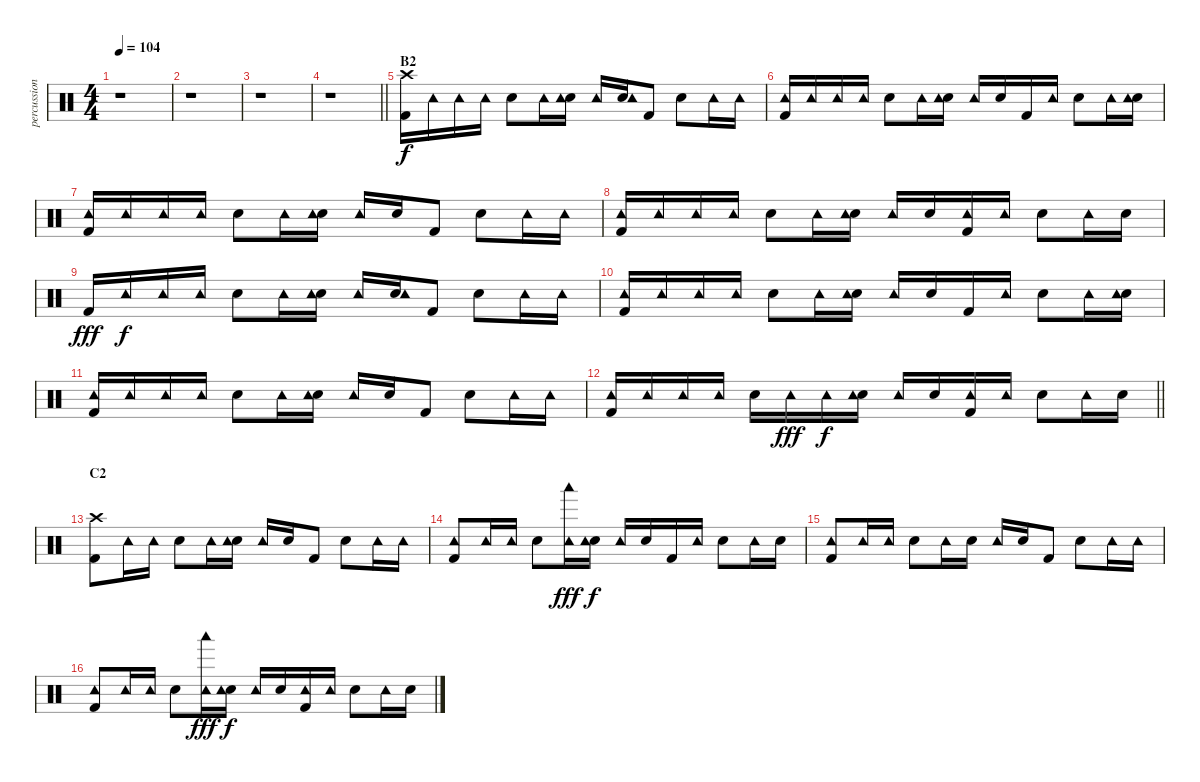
\track ("percussion" "percussion") {instrument percussion}
\staff {score}
\articulation defaults
\ts (4 4)
\tempo 104
\clef neutral
\ks c
r.1{dy f} |
r.1 |
r.1 |
\barLineRight lightlight
r.1 |
\section ("" "B2")
("Crash high (hit)" "Kick (hit) 2").16 "Tambourine (hit)".16 "Tambourine (hit)".16 "Tambourine (hit)".16 "Snare (hit) 2".8 "Tambourine (hit)".16 ("Snare (hit) 2" "Tambourine (hit)").16 "Tambourine (hit)".16 ("Snare (hit) 2" "Tambourine (hit)").16 "Kick (hit) 2".8 "Snare (hit) 2".8 "Tambourine (hit)".16 "Tambourine (hit)".16 |
("Tambourine (hit)" "Kick (hit) 2").16 "Tambourine (hit)".16 "Tambourine (hit)".16 "Tambourine (hit)".16 "Snare (hit) 2".8 "Tambourine (hit)".16 ("Snare (hit) 2" "Tambourine (hit)").16 "Tambourine (hit)".16 "Snare (hit) 2".16 "Kick (hit) 2".16 "Tambourine (hit)".16 "Snare (hit) 2".8 "Tambourine (hit)".16 ("Snare (hit) 2" "Tambourine (hit)").16 |
("Tambourine (hit)" "Kick (hit) 2").16 "Tambourine (hit)".16 "Tambourine (hit)".16 "Tambourine (hit)".16 "Snare (hit) 2".8 "Tambourine (hit)".16 ("Snare (hit) 2" "Tambourine (hit)").16 "Tambourine (hit)".16 "Snare (hit) 2".16 "Kick (hit) 2".8 "Snare (hit) 2".8 "Tambourine (hit)".16 "Tambourine (hit)".16 |
("Tambourine (hit)" "Kick (hit) 2").16 "Tambourine (hit)".16 "Tambourine (hit)".16 "Tambourine (hit)".16 "Snare (hit) 2".8 "Tambourine (hit)".16 ("Snare (hit) 2" "Tambourine (hit)").16 "Tambourine (hit)".16 "Snare (hit) 2".16 ("Tambourine (hit)" "Kick (hit) 2").16 "Tambourine (hit)".16 "Snare (hit) 2".8 "Tambourine (hit)".16 "Snare (hit) 2".16 |
"Kick (hit) 2".16{dy fff} "Tambourine (hit)".16{dy f} "Tambourine (hit)".16 "Tambourine (hit)".16 "Snare (hit) 2".8 "Tambourine (hit)".16 ("Snare (hit) 2" "Tambourine (hit)").16 "Tambourine (hit)".16 ("Snare (hit) 2" "Tambourine (hit)").16 "Kick (hit) 2".8 "Snare (hit) 2".8 "Tambourine (hit)".16 "Tambourine (hit)".16 |
("Tambourine (hit)" "Kick (hit) 2").16 "Tambourine (hit)".16 "Tambourine (hit)".16 "Tambourine (hit)".16 "Snare (hit) 2".8 "Tambourine (hit)".16 ("Snare (hit) 2" "Tambourine (hit)").16 "Tambourine (hit)".16 "Snare (hit) 2".16 "Kick (hit) 2".16 "Tambourine (hit)".16 "Snare (hit) 2".8 "Tambourine (hit)".16 ("Snare (hit) 2" "Tambourine (hit)").16 |
("Tambourine (hit)" "Kick (hit) 2").16 "Tambourine (hit)".16 "Tambourine (hit)".16 "Tambourine (hit)".16 "Snare (hit) 2".8 "Tambourine (hit)".16 ("Snare (hit) 2" "Tambourine (hit)").16 "Tambourine (hit)".16 "Snare (hit) 2".16 "Kick (hit) 2".8 "Snare (hit) 2".8 "Tambourine (hit)".16 "Tambourine (hit)".16 |
\barLineRight lightlight
("Tambourine (hit)" "Kick (hit) 2").16 "Tambourine (hit)".16 "Tambourine (hit)".16 "Tambourine (hit)".16 "Snare (hit) 2".16 "Tambourine (hit)".16{dy fff} "Tambourine (hit)".16{dy f} ("Snare (hit) 2" "Tambourine (hit)").16 "Tambourine (hit)".16 "Snare (hit) 2".16 ("Tambourine (hit)" "Kick (hit) 2").16 "Tambourine (hit)".16 "Snare (hit) 2".8 "Tambourine (hit)".16 "Snare (hit) 2".16 |
\section ("" "C2")
("Crash high (hit)" "Kick (hit) 2").8 "Tambourine (hit)".16 "Tambourine (hit)".16 "Snare (hit) 2".8 "Tambourine (hit)".16 ("Snare (hit) 2" "Tambourine (hit)").16 "Tambourine (hit)".16 "Snare (hit) 2".16 "Kick (hit) 2".8 "Snare (hit) 2".8 "Tambourine (hit)".16 "Tambourine (hit)".16 |
("Tambourine (hit)" "Kick (hit) 2").8 "Tambourine (hit)".16 "Tambourine (hit)".16 "Snare (hit) 2".8 ("Woodblock low (hit)" "Tambourine (hit)").16{dy fff} ("Snare (hit) 2" "Tambourine (hit)").16{dy f} "Tambourine (hit)".16 "Snare (hit) 2".16 "Kick (hit) 2".16 "Tambourine (hit)".16 "Snare (hit) 2".8 "Tambourine (hit)".16 "Snare (hit) 2".16 |
("Tambourine (hit)" "Kick (hit) 2").8 "Tambourine (hit)".16 "Tambourine (hit)".16 "Snare (hit) 2".8 "Tambourine (hit)".16 "Snare (hit) 2".16 "Tambourine (hit)".16 "Snare (hit) 2".16 "Kick (hit) 2".8 "Snare (hit) 2".8 "Tambourine (hit)".16 "Tambourine (hit)".16 |
("Tambourine (hit)" "Kick (hit) 2").8 "Tambourine (hit)".16 "Tambourine (hit)".16 "Snare (hit) 2".8 ("Woodblock low (hit)" "Tambourine (hit)").16{dy fff} ("Snare (hit) 2" "Tambourine (hit)").16{dy f} "Tambourine (hit)".16 "Snare (hit) 2".16 ("Tambourine (hit)" "Kick (hit) 2").16 "Tambourine (hit)".16 "Snare (hit) 2".8 "Tambourine (hit)".16 "Snare (hit) 2".16
